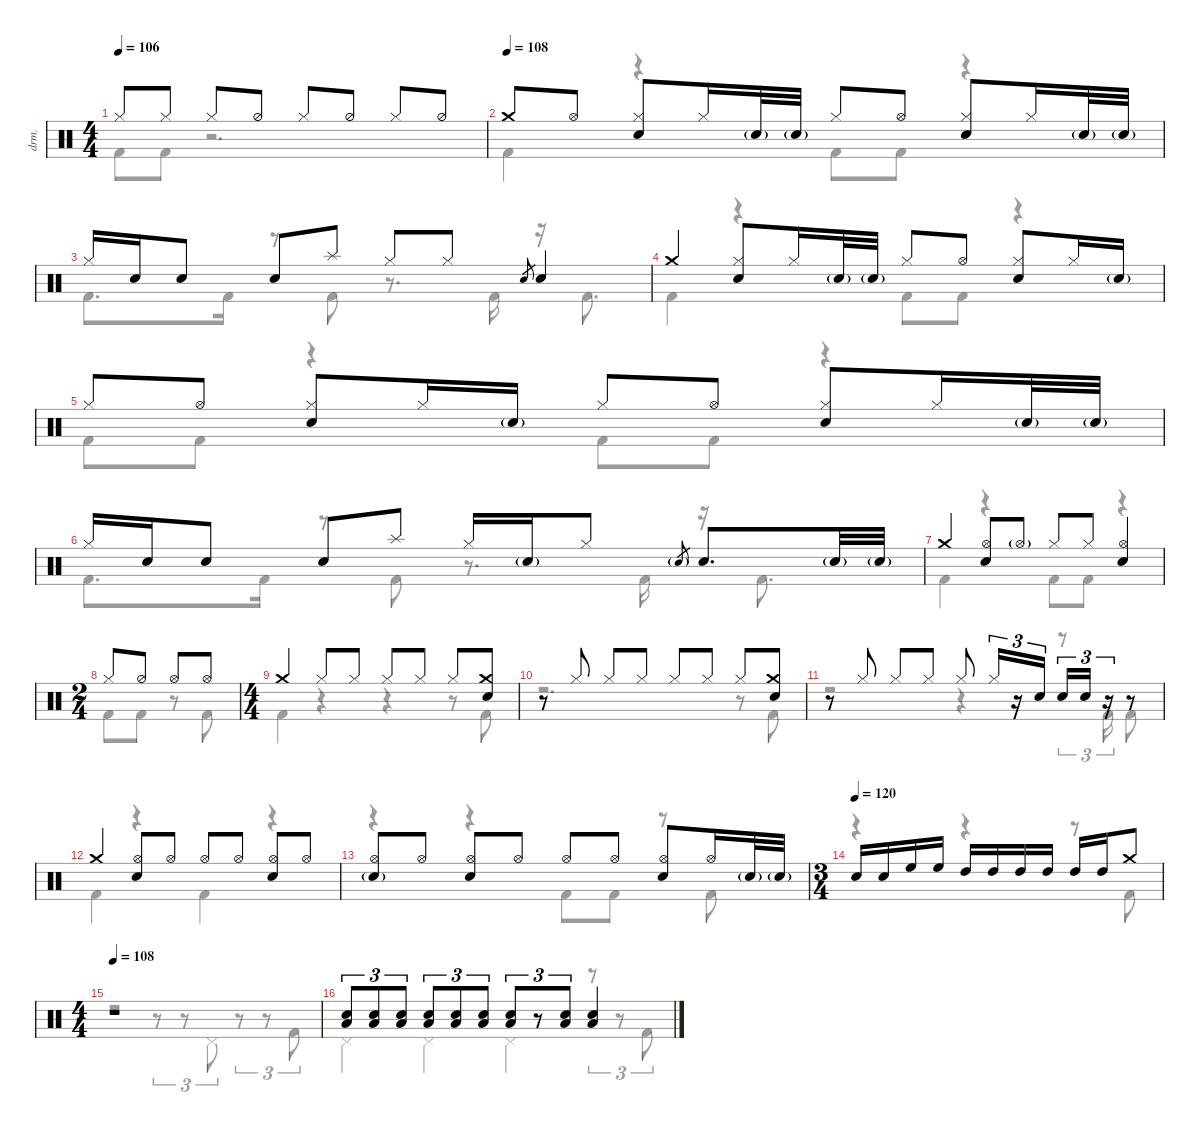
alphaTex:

\defaultSystemsLayout 4
\hideDynamics
\bracketExtendMode nobrackets
\track ("Drums" "drm.") {instrument percussion}
\staff {score}
\articulation defaults
\voice
\ts (4 4)
\tempo 106
\clef neutral
\ks c "Hi-Hat (closed)".8{dy mf} "Hi-Hat (closed)".8 "Hi-Hat (closed)".8 "Hi-Hat (half)".8 "Hi-Hat (closed)".8 "Hi-Hat (half)".8 "Hi-Hat (closed)".8 "Hi-Hat (half)".8
|
\tempo (108)
"Crash medium (hit)".8 "Hi-Hat (open)".8 ("Hi-Hat (closed)" "Snare (hit) 2").8 "Hi-Hat (closed)".16 "Snare (hit) 2"{g}.32 "Snare (hit) 2"{g}.32 "Hi-Hat (closed)".8 "Hi-Hat (open)".8 ("Hi-Hat (closed)" "Snare (hit) 2").8 "Hi-Hat (closed)".16 "Snare (hit) 2"{g}.32 "Snare (hit) 2"{g}.32 |
"Hi-Hat (closed)".16 "Snare (hit) 2".16 "Snare (hit) 2".8 "Snare (hit) 2".8 "Splash (hit)".8 "Hi-Hat (closed)".8 "Hi-Hat (closed)".8 "Snare (hit) 2".8{gr} "Snare (hit) 2".4 |
"Crash medium (hit)".4 ("Hi-Hat (closed)" "Snare (hit) 2").8 "Hi-Hat (closed)".16 "Snare (hit) 2"{g}.32 "Snare (hit) 2"{g}.32 "Hi-Hat (closed)".8 "Hi-Hat (open)".8 ("Hi-Hat (closed)" "Snare (hit) 2").8 "Hi-Hat (closed)".16 "Snare (hit) 2"{g}.16 |
"Hi-Hat (closed)".8 "Hi-Hat (open)".8 ("Hi-Hat (closed)" "Snare (hit) 2").8 "Hi-Hat (closed)".16 "Snare (hit) 2"{g}.16 "Hi-Hat (closed)".8 "Hi-Hat (open)".8 ("Hi-Hat (closed)" "Snare (hit) 2").8 "Hi-Hat (closed)".16 "Snare (hit) 2"{g}.32 "Snare (hit) 2"{g}.32 |
\scale
0.511207 "Hi-Hat (closed)".16 "Snare (hit) 2".16 "Snare (hit) 2".8 "Snare (hit) 2".8 "Splash (hit)".8 "Hi-Hat (closed)".16 "Snare (hit) 2"{g}.16 "Hi-Hat (closed)".8 "Snare (hit) 2"{g}.8{gr} "Snare (hit) 2".8{d} "Snare (hit) 2"{g}.32 "Snare (hit) 2"{g}.32 |
\scale
0.488793 "Crash medium (hit)".4 ("Hi-Hat (open)" "Snare (hit) 2").8 "Hi-Hat (open)"{g}.8 "Hi-Hat (closed)".8 "Hi-Hat (closed)".8 ("Hi-Hat (open)" "Snare (hit) 2").4 |
\ts (2 4)
\beaming (8 2 2)
"Hi-Hat (closed)".8 "Hi-Hat (half)".8 "Hi-Hat (open)".8 "Hi-Hat (open)".8 |
\ts (4 4)
\beaming (8 2 2 2 2)
"Crash medium (hit)".4 "Hi-Hat (closed)".8 "Hi-Hat (closed)".8 "Hi-Hat (closed)".8 "Hi-Hat (closed)".8 "Hi-Hat (closed)".8 ("Crash medium (hit)" "Snare (hit) 2").8 |
r.8 "Hi-Hat (closed)".8 "Hi-Hat (closed)".8 "Hi-Hat (closed)".8 "Hi-Hat (closed)".8 "Hi-Hat (closed)".8 "Hi-Hat (closed)".8 ("Crash medium (hit)" "Snare (hit) 2").8 |
r.8 "Hi-Hat (closed)".8 "Hi-Hat (closed)".8 "Hi-Hat (closed)".8 "Hi-Hat (closed)".8 "Hi-Hat (closed)".16{tu (3 2)} r.16{tu (3 2)} "Snare (hit) 2".16{tu (3 2)} "Snare (hit) 2".16{tu (3 2)} "Snare (hit) 2".16{tu (3 2)} r.16{tu (3 2)} r.8 |
\scale
0.512184 "Crash medium (hit)".4 ("Hi-Hat (open)" "Snare (hit) 2").8 "Hi-Hat (open)".8 "Hi-Hat (open)".8 "Hi-Hat (open)".8 ("Hi-Hat (open)" "Snare (hit) 2").8 "Hi-Hat (open)".8 |
\scale
0.487816 ("Snare (hit) 2"{g} "Hi-Hat (open)").8 "Hi-Hat (open)".8 ("Hi-Hat (open)" "Snare (hit) 2").8 "Hi-Hat (open)".8 "Hi-Hat (open)".8 "Hi-Hat (open)".8 ("Hi-Hat (open)" "Snare (hit) 2").8 "Hi-Hat (open)".16 "Snare (hit) 2"{g}.32 "Snare (hit) 2"{g}.32 |
\ts (3 4)
\beaming (8 2 2 2)
\tempo (120)
"Snare (hit) 2".16 "Snare (hit) 2".16 "High Floor Tom (hit)".16 "High Floor Tom (hit)".16 "High Tom (hit)".16 "High Tom (hit)".16 "High Tom (hit)".16 "High Tom (hit)".16 "High Tom (hit)".16 "High Tom (hit)".16 "Crash medium (hit)".8 |
\ts (4 4)
\beaming (8 2 2 2 2)
\tempo 108
r.1 |
("Snare (hit) 2" "Low Tom (hit)").8{tu (3 2)} ("Snare (hit) 2" "Low Tom (hit)").8{tu (3 2)} ("Snare (hit) 2" "Low Tom (hit)").8{tu (3 2)} ("Snare (hit) 2" "Low Tom (hit)").8{tu (3 2)} ("Snare (hit) 2" "Low Tom (hit)").8{tu (3 2)} ("Snare (hit) 2" "Low Tom (hit)").8{tu (3 2)} ("Snare (hit) 2" "Low Tom (hit)").8{tu (3 2)} r.8{tu (3 2)} ("Snare (hit) 2" "Low Tom (hit)").8{tu (3 2)} ("Low Tom (hit)" "Snare (hit) 2").4
\voice
\clef neutral
\ottava regular
\simile none
\ks c "Kick (hit) 2".8{dy mf} "Kick (hit) 2".8
r.2{d} |
"Kick (hit) 2".4 r.4 "Kick (hit) 2".8 "Kick (hit) 2".8 r.4 |
"Kick (hit) 2".8{d} "Kick (hit) 2".16 r.8 "Kick (hit) 2".8 r.8{d} "Kick (hit) 2".16{beam split} r.16{beam split} "Kick (hit) 2".8{d} |
"Kick (hit) 2".4 r.4 "Kick (hit) 2".8 "Kick (hit) 2".8 r.4 |
"Kick (hit) 2".8 "Kick (hit) 2".8 r.4 "Kick (hit) 2".8 "Kick (hit) 2".8 r.4 |
\scale
0.511207 "Kick (hit) 2".8{d} "Kick (hit) 2".16 r.8 "Kick (hit) 2".8 r.8{d} "Kick (hit) 2".16 r.16 "Kick (hit) 2".8{d} |
\scale
0.488793 "Kick (hit) 2".4 r.4 "Kick (hit) 2".8 "Kick (hit) 2".8 r.4 |
"Kick (hit) 2".8 "Kick (hit) 2".8 r.8 "Kick (hit) 2".8 |
"Kick (hit) 2".4 r.4 r.4 r.8 "Kick (hit) 2".8 |
r.2{d} r.8 "Kick (hit) 2".8 |
r.2 r.4 r.8{tu (3 2)} "Kick (hit) 2".16{tu (3 2)} "Kick (hit) 2".8 |
\scale
0.512184 "Kick (hit) 2".4 r.4 "Kick (hit) 2".4 r.4 |
\scale
0.487816 r.4 r.4 "Kick (hit) 2".8 "Kick (hit) 2".8 r.8 "Kick (hit) 2".8 |
r.4 r.4 r.8 "Kick (hit) 2".8 |
r.2 r.8{tu (3 2)} r.8{tu (3 2)} "Pedal Hi-Hat (hit)".8{tu (3 2)} r.8{tu (3 2)} r.8{tu (3 2)} "Kick (hit) 2".8{tu (3 2)} |
"Pedal Hi-Hat (hit)".4 "Pedal Hi-Hat (hit)".4 "Pedal Hi-Hat (hit)".4 r.8{tu (3 2)} r.8{tu (3 2)} "Kick (hit) 2".8{tu (3 2)}
